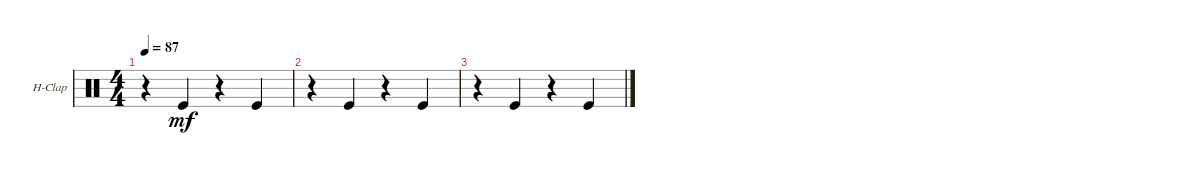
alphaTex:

\defaultSystemsLayout 4
\bracketExtendMode groupsimilarinstruments
\firstSystemTrackNameOrientation horizontal
\otherSystemsTrackNameOrientation horizontal
\track ("Hand Clap" "H-Clap") {instrument percussion}
\staff {score}
\articulation defaults
\ts (4 4)
\tempo 87
\clef neutral
\scale
0.333333
\ks c
r.4{dy mf} "Kick (hit)".4 r.4 "Kick (hit)".4 |
\scale
0.333333 r.4 "Kick (hit)".4 r.4 "Kick (hit)".4 |
\scale
0.333333 r.4 "Kick (hit)".4 r.4 "Kick (hit)".4 |
\scale
0.333333 |
\scale
0.333333 |
\scale
0.333333 |
\scale
0.333333 |
\scale
0.333333 |
\scale
0.333333 |
\scale
0.333333 |
\scale
0.333333 |
\scale
0.333333 |
\scale
0.333333 |
\scale
0.333333 |
\scale
0.333333 |
\scale
0.333333
